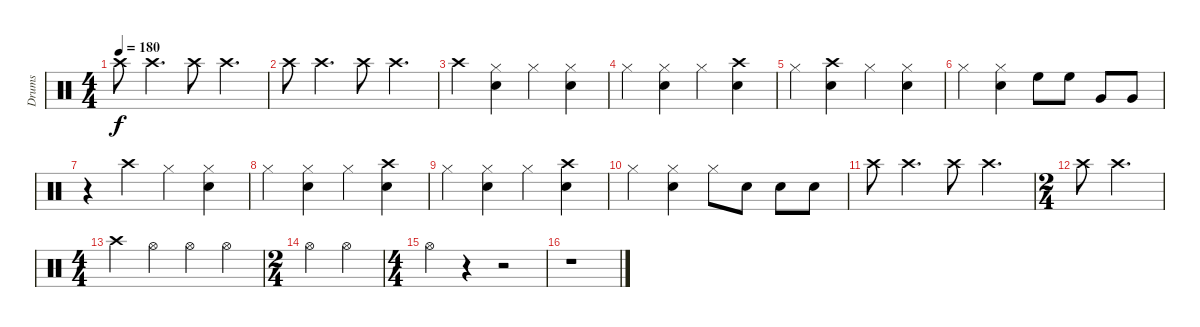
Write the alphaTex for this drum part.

\track ("Drums" "Drums") {instrument percussion}
\staff {score}
\articulation defaults
\ts (4 4)
\tempo 180
\clef neutral
\ks c "Crash high (hit)".8{dy f} "Crash high (hit)".4{d} "Crash high (hit)".8 "Crash high (hit)".4{d}
|
"Crash high (hit)".8 "Crash high (hit)".4{d} "Crash high (hit)".8 "Crash high (hit)".4{d} |
"Crash high (hit)".4 ("Hi-Hat (closed)" "Snare (hit) 2").4 "Hi-Hat (closed)".4 ("Hi-Hat (closed)" "Snare (hit) 2").4 |
"Hi-Hat (closed)".4 ("Hi-Hat (closed)" "Snare (hit) 2").4 "Hi-Hat (closed)".4 ("Crash high (hit)" "Snare (hit) 2").4 |
"Hi-Hat (closed)".4 ("Crash high (hit)" "Snare (hit) 2").4 "Hi-Hat (closed)".4 ("Hi-Hat (closed)" "Snare (hit) 2").4 |
"Hi-Hat (closed)".4 ("Hi-Hat (closed)" "Snare (hit) 2").4 "High Floor Tom (hit)".8 "High Floor Tom (hit)".8 "Very Low Tom (hit)".8 "Very Low Tom (hit)".8 |
r.4 "Crash high (hit)".4 "Hi-Hat (closed)".4 ("Hi-Hat (closed)" "Snare (hit) 2").4 |
"Hi-Hat (closed)".4 ("Hi-Hat (closed)" "Snare (hit) 2").4 "Hi-Hat (closed)".4 ("Crash high (hit)" "Snare (hit) 2").4 |
"Hi-Hat (closed)".4 ("Hi-Hat (closed)" "Snare (hit) 2").4 "Hi-Hat (closed)".4 ("Crash high (hit)" "Snare (hit) 2").4 |
"Hi-Hat (closed)".4 ("Hi-Hat (closed)" "Snare (hit) 2").4 "Hi-Hat (closed)".8 "Snare (hit) 2".8 "Snare (hit) 2".8 "Snare (hit) 2".8 |
"Crash high (hit)".8 "Crash high (hit)".4{d} "Crash high (hit)".8 "Crash high (hit)".4{d} |
\ts (2 4)
"Crash high (hit)".8 "Crash high (hit)".4{d} |
\ts (4 4)
"Crash high (hit)".4 "Hi-Hat (open)".4 "Hi-Hat (open)".4 "Hi-Hat (open)".4 |
\ts (2 4)
"Hi-Hat (open)".4 "Hi-Hat (open)".4 |
\ts (4 4)
"Hi-Hat (open)".4 r.4 r.2 |
r.1
